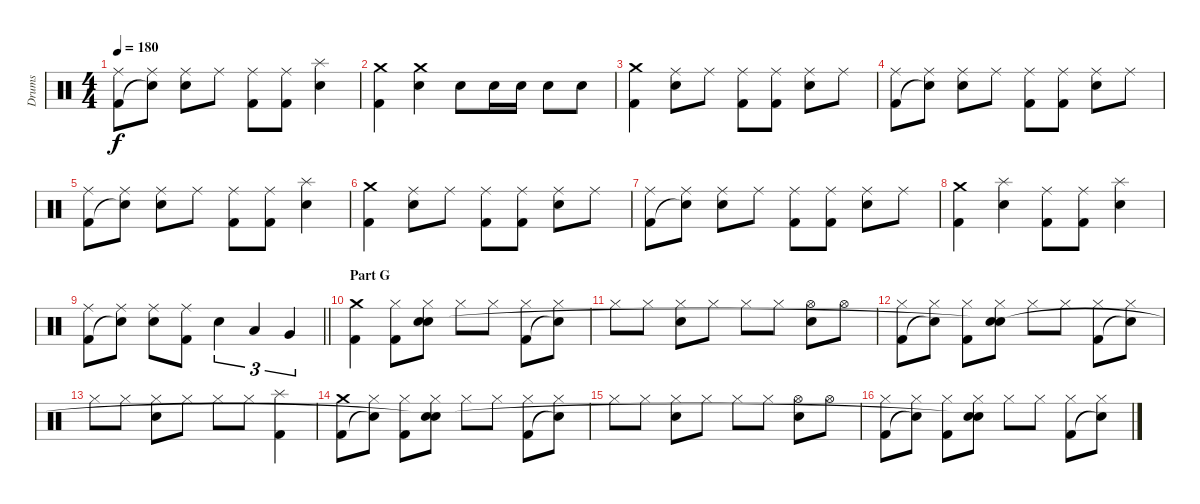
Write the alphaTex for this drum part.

\track ("Drums" "Drums") {instrument percussion}
\staff {score}
\articulation defaults
\ts (4 4)
\tempo 180
\clef neutral
\ks c
("Ride (middle)" "Kick (hit) 2").8{dy f} ("Ride (middle)" "Snare (hit)"{t}).8 ("Ride (middle)" "Electric Snare (hit)").8 "Ride (middle)".8 ("Ride (middle)" "Kick (hit) 2").8 ("Ride (middle)" "Kick (hit) 2").8 ("Splash (hit)" "Electric Snare (hit)").4 |
("Crash medium (hit)" "Kick (hit) 2").4 ("Crash medium (hit)" "Electric Snare (hit)").4 "Electric Snare (hit)".8 "Electric Snare (hit)".16 "Electric Snare (hit)".16 "Electric Snare (hit)".8 "Electric Snare (hit)".8 |
("Crash medium (hit)" "Kick (hit) 2").4 ("Ride (middle)" "Electric Snare (hit)").8 "Ride (middle)".8 ("Ride (middle)" "Kick (hit) 2").8 ("Ride (middle)" "Kick (hit) 2").8 ("Ride (middle)" "Electric Snare (hit)").8 "Ride (middle)".8 |
("Ride (middle)" "Kick (hit) 2").8 ("Ride (middle)" "Snare (hit)"{t}).8 ("Ride (middle)" "Electric Snare (hit)").8 "Ride (middle)".8 ("Ride (middle)" "Kick (hit) 2").8 ("Ride (middle)" "Kick (hit) 2").8 ("Ride (middle)" "Electric Snare (hit)").8 "Ride (middle)".8 |
("Ride (middle)" "Kick (hit) 2").8 ("Ride (middle)" "Snare (hit)"{t}).8 ("Ride (middle)" "Electric Snare (hit)").8 "Ride (middle)".8 ("Ride (middle)" "Kick (hit) 2").8 ("Ride (middle)" "Kick (hit) 2").8 ("Splash (hit)" "Electric Snare (hit)").4 |
("Crash medium (hit)" "Kick (hit) 2").4 ("Ride (middle)" "Electric Snare (hit)").8 "Ride (middle)".8 ("Ride (middle)" "Kick (hit) 2").8 ("Ride (middle)" "Kick (hit) 2").8 ("Ride (middle)" "Electric Snare (hit)").8 "Ride (middle)".8 |
("Ride (middle)" "Kick (hit) 2").8 ("Ride (middle)" "Snare (hit)"{t}).8 ("Ride (middle)" "Electric Snare (hit)").8 "Ride (middle)".8 ("Ride (middle)" "Kick (hit) 2").8 ("Ride (middle)" "Kick (hit) 2").8 ("Ride (middle)" "Electric Snare (hit)").8 "Ride (middle)".8 |
("Crash medium (hit)" "Kick (hit) 2").4 ("Splash (hit)" "Electric Snare (hit)").4 ("Ride (middle)" "Kick (hit) 2").8 ("Ride (middle)" "Kick (hit) 2").8 ("Splash (hit)" "Electric Snare (hit)").4 |
\barLineRight lightlight
("Ride (middle)" "Kick (hit) 2").8 ("Ride (middle)" "Snare (hit)"{t}).8 ("Ride (middle)" "Electric Snare (hit)").8 ("Ride (middle)" "Kick (hit) 2").8 "Electric Snare (hit)".4{tu (3 2)} "Low Tom (hit)".4{tu (3 2)} "Very Low Tom (hit)".4{tu (3 2)} |
\section ("" "Part G")
("Crash medium (hit)" "Kick (hit) 2").4 ("Hi-Hat (closed)" "Kick (hit) 2").8 ("Hi-Hat (closed)" "Electric Snare (hit)" "Snare (hit)").8 "Hi-Hat (closed)".8 "Hi-Hat (closed)".8 ("Hi-Hat (closed)" "Kick (hit) 2").8 ("Hi-Hat (closed)" "Snare (hit)"{t}).8 |
"Hi-Hat (closed)".8 "Hi-Hat (closed)".8 ("Hi-Hat (closed)" "Electric Snare (hit)").8 "Hi-Hat (closed)".8 "Hi-Hat (closed)".8 "Hi-Hat (closed)".8 ("Hi-Hat (open)" "Electric Snare (hit)").8 "Hi-Hat (open)".8 |
("Hi-Hat (closed)" "Kick (hit) 2").8 ("Hi-Hat (closed)" "Snare (hit)"{t}).8 ("Hi-Hat (closed)" "Kick (hit) 2").8 ("Hi-Hat (closed)" "Electric Snare (hit)" "Snare (hit)"{t}).8 "Hi-Hat (closed)".8 "Hi-Hat (closed)".8 ("Hi-Hat (closed)" "Kick (hit) 2").8 ("Hi-Hat (closed)" "Snare (hit)"{t}).8 |
"Hi-Hat (closed)".8 "Hi-Hat (closed)".8 ("Hi-Hat (closed)" "Electric Snare (hit)").8 "Hi-Hat (closed)".8 "Hi-Hat (closed)".8 "Hi-Hat (closed)".8 ("Splash (hit)" "Kick (hit) 2").4 |
("Crash medium (hit)" "Kick (hit) 2").8 ("Hi-Hat (closed)" "Snare (hit)"{t}).8 ("Hi-Hat (closed)" "Kick (hit) 2").8 ("Hi-Hat (closed)" "Electric Snare (hit)" "Snare (hit)"{t}).8 "Hi-Hat (closed)".8 "Hi-Hat (closed)".8 ("Hi-Hat (closed)" "Kick (hit) 2").8 ("Hi-Hat (closed)" "Snare (hit)"{t}).8 |
"Hi-Hat (closed)".8 "Hi-Hat (closed)".8 ("Hi-Hat (closed)" "Electric Snare (hit)").8 "Hi-Hat (closed)".8 "Hi-Hat (closed)".8 "Hi-Hat (closed)".8 ("Hi-Hat (open)" "Electric Snare (hit)").8 "Hi-Hat (open)".8 |
("Hi-Hat (closed)" "Kick (hit) 2").8 ("Hi-Hat (closed)" "Snare (hit)"{t}).8 ("Hi-Hat (closed)" "Kick (hit) 2").8 ("Hi-Hat (closed)" "Electric Snare (hit)" "Snare (hit)"{t}).8 "Hi-Hat (closed)".8 "Hi-Hat (closed)".8 ("Hi-Hat (closed)" "Kick (hit) 2").8 ("Hi-Hat (closed)" "Snare (hit)"{t}).8
